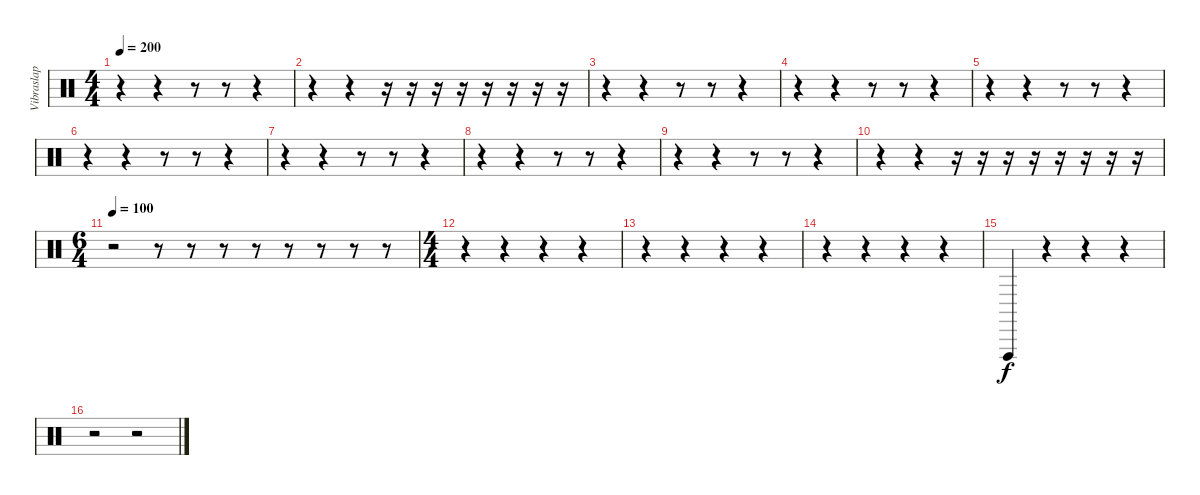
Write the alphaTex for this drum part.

\track ("Vibraslap" "Vibraslap") {instrument percussion}
\staff {score}
\articulation defaults
\ts (4 4)
\tempo 200
\clef neutral
\ks c
r.4{dy f} r.4 r.8 r.8 r.4 |
r.4 r.4 r.16 r.16 r.16 r.16 r.16 r.16 r.16 r.16 |
r.4 r.4 r.8 r.8 r.4 |
r.4 r.4 r.8 r.8 r.4 |
r.4 r.4 r.8 r.8 r.4 |
r.4 r.4 r.8 r.8 r.4 |
r.4 r.4 r.8 r.8 r.4 |
r.4 r.4 r.8 r.8 r.4 |
r.4 r.4 r.8 r.8 r.4 |
r.4 r.4 r.16 r.16 r.16 r.16 r.16 r.16 r.16 r.16 |
\ts (6 4)
\tempo 100
r.2 r.8 r.8 r.8 r.8 r.8 r.8 r.8 r.8 |
\ts (4 4)
r.4 r.4 r.4 r.4 |
r.4 r.4 r.4 r.4 |
r.4 r.4 r.4 r.4 |
"Vibraslap (hit)".4 r.4 r.4 r.4 |
r.2 r.2
